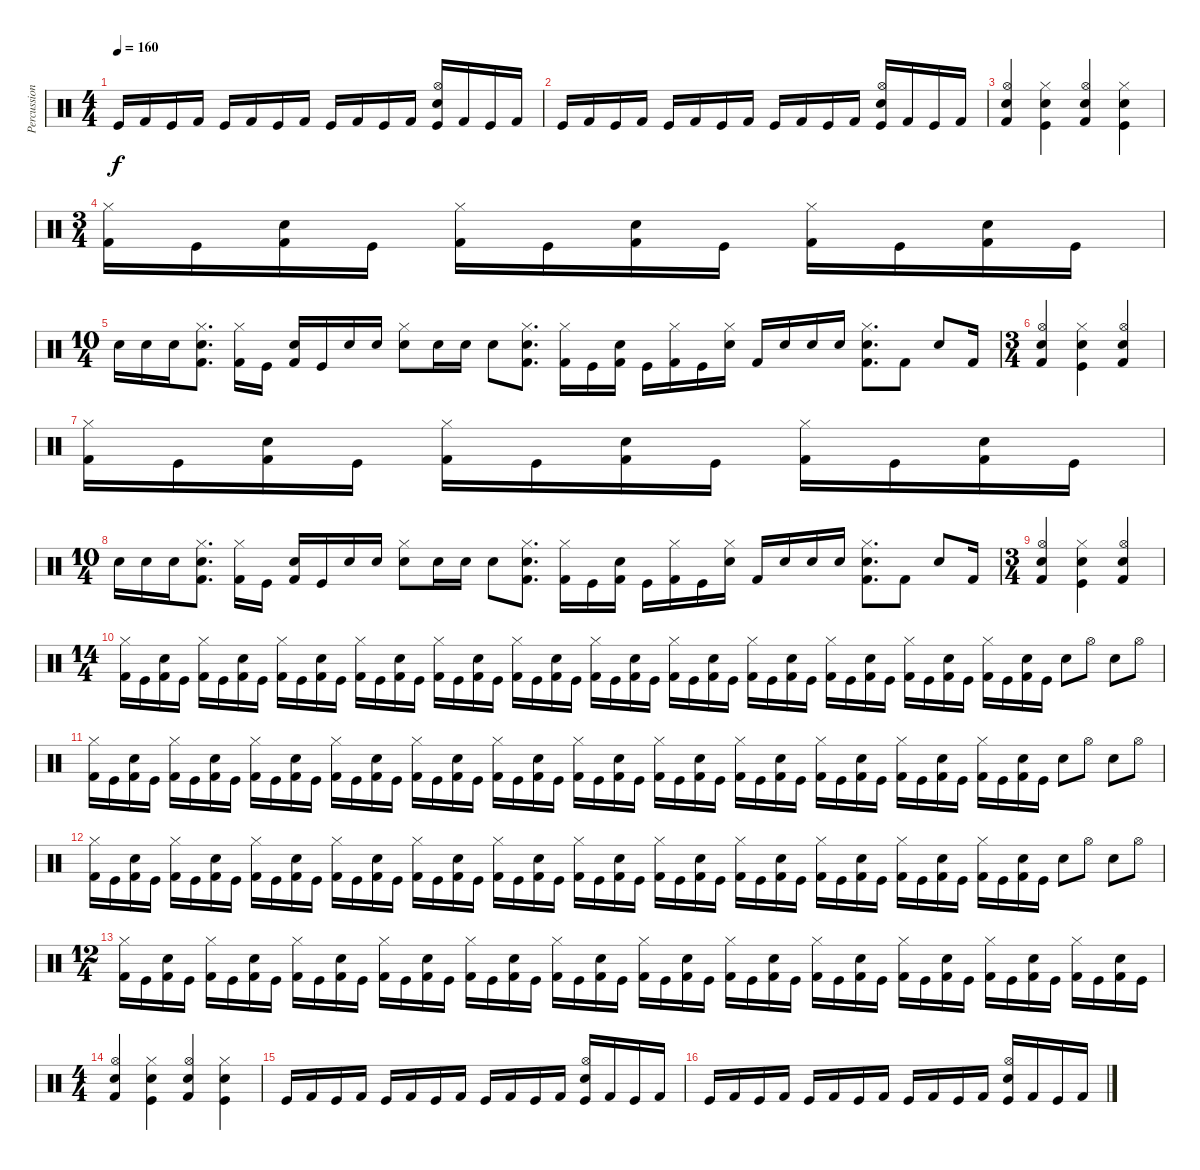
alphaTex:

\track ("Percussions" "Percussion") {instrument percussion}
\staff {score}
\articulation defaults
\ts (4 4)
\tempo 160
\clef neutral
\ks c "Kick (hit)".16{dy f} "Kick (hit) 2".16 "Kick (hit)".16 "Kick (hit) 2".16 "Kick (hit)".16 "Kick (hit) 2".16 "Kick (hit)".16 "Kick (hit) 2".16 "Kick (hit)".16 "Kick (hit) 2".16 "Kick (hit)".16 "Kick (hit) 2".16
("Hi-Hat (open)" "Electric Snare (hit)" "Kick (hit)").16 "Kick (hit) 2".16 "Kick (hit)".16 "Kick (hit) 2".16 |
"Kick (hit)".16 "Kick (hit) 2".16 "Kick (hit)".16 "Kick (hit) 2".16 "Kick (hit)".16 "Kick (hit) 2".16 "Kick (hit)".16 "Kick (hit) 2".16 "Kick (hit)".16 "Kick (hit) 2".16 "Kick (hit)".16 "Kick (hit) 2".16 ("Hi-Hat (open)" "Electric Snare (hit)" "Kick (hit)").16 "Kick (hit) 2".16 "Kick (hit)".16 "Kick (hit) 2".16 |
("Electric Snare (hit)" "Kick (hit) 2" "Hi-Hat (open)").4 ("Electric Snare (hit)" "Kick (hit)" "Hi-Hat (closed)").4 ("Electric Snare (hit)" "Kick (hit) 2" "Hi-Hat (open)").4 ("Electric Snare (hit)" "Kick (hit)" "Hi-Hat (closed)").4 |
\ts (3 4)
("Hi-Hat (closed)" "Kick (hit) 2").16 "Kick (hit)".16 ("Snare (hit) 2" "Kick (hit) 2").16 "Kick (hit)".16 ("Hi-Hat (closed)" "Kick (hit) 2").16 "Kick (hit)".16 ("Snare (hit) 2" "Kick (hit) 2").16 "Kick (hit)".16 ("Hi-Hat (closed)" "Kick (hit) 2").16 "Kick (hit)".16 ("Snare (hit) 2" "Kick (hit) 2").16 "Kick (hit)".16 |
\ts (10 4)
"Electric Snare (hit)".16 "Electric Snare (hit)".16 "Electric Snare (hit)".16 ("Hi-Hat (closed)" "Electric Snare (hit)" "Kick (hit) 2").8{d} ("Kick (hit) 2" "Hi-Hat (closed)").16 "Kick (hit)".16 ("Kick (hit) 2" "Snare (hit) 2").16 "Kick (hit)".16 "Electric Snare (hit)".16 "Electric Snare (hit)".16 ("Hi-Hat (closed)" "Electric Snare (hit)").8 "Electric Snare (hit)".16 "Electric Snare (hit)".16 "Electric Snare (hit)".8 ("Hi-Hat (closed)" "Electric Snare (hit)" "Kick (hit) 2").8{d} ("Hi-Hat (closed)" "Kick (hit) 2").16 "Kick (hit)".16 ("Snare (hit) 2" "Kick (hit) 2").16 "Kick (hit)".16 ("Hi-Hat (closed)" "Kick (hit) 2").16 "Kick (hit)".16 ("Hi-Hat (closed)" "Snare (hit) 2").16 "Kick (hit) 2".16 "Electric Snare (hit)".16 "Electric Snare (hit)".16 "Electric Snare (hit)".16 ("Hi-Hat (closed)" "Electric Snare (hit)" "Kick (hit) 2").8{d} "Kick (hit) 2".8 "Snare (hit) 2".8 "Kick (hit) 2".16 |
\ts (3 4)
("Electric Snare (hit)" "Kick (hit) 2" "Hi-Hat (open)").4 ("Electric Snare (hit)" "Kick (hit)" "Hi-Hat (closed)").4 ("Electric Snare (hit)" "Kick (hit) 2" "Hi-Hat (open)").4 |
("Hi-Hat (closed)" "Kick (hit) 2").16 "Kick (hit)".16 ("Snare (hit) 2" "Kick (hit) 2").16 "Kick (hit)".16 ("Hi-Hat (closed)" "Kick (hit) 2").16 "Kick (hit)".16 ("Snare (hit) 2" "Kick (hit) 2").16 "Kick (hit)".16 ("Hi-Hat (closed)" "Kick (hit) 2").16 "Kick (hit)".16 ("Snare (hit) 2" "Kick (hit) 2").16 "Kick (hit)".16 |
\ts (10 4)
"Electric Snare (hit)".16 "Electric Snare (hit)".16 "Electric Snare (hit)".16 ("Hi-Hat (closed)" "Electric Snare (hit)" "Kick (hit) 2").8{d} ("Kick (hit) 2" "Hi-Hat (closed)").16 "Kick (hit)".16 ("Kick (hit) 2" "Snare (hit) 2").16 "Kick (hit)".16 "Electric Snare (hit)".16 "Electric Snare (hit)".16 ("Hi-Hat (closed)" "Electric Snare (hit)").8 "Electric Snare (hit)".16 "Electric Snare (hit)".16 "Electric Snare (hit)".8 ("Hi-Hat (closed)" "Electric Snare (hit)" "Kick (hit) 2").8{d} ("Hi-Hat (closed)" "Kick (hit) 2").16 "Kick (hit)".16 ("Snare (hit) 2" "Kick (hit) 2").16 "Kick (hit)".16 ("Hi-Hat (closed)" "Kick (hit) 2").16 "Kick (hit)".16 ("Hi-Hat (closed)" "Snare (hit) 2").16 "Kick (hit) 2".16 "Electric Snare (hit)".16 "Electric Snare (hit)".16 "Electric Snare (hit)".16 ("Hi-Hat (closed)" "Electric Snare (hit)" "Kick (hit) 2").8{d} "Kick (hit) 2".8 "Snare (hit) 2".8 "Kick (hit) 2".16 |
\ts (3 4)
("Electric Snare (hit)" "Kick (hit) 2" "Hi-Hat (open)").4 ("Electric Snare (hit)" "Kick (hit)" "Hi-Hat (closed)").4 ("Electric Snare (hit)" "Kick (hit) 2" "Hi-Hat (open)").4 |
\ts (14 4)
("Hi-Hat (closed)" "Kick (hit) 2").16 "Kick (hit)".16 ("Snare (hit) 2" "Kick (hit) 2").16 "Kick (hit)".16 ("Hi-Hat (closed)" "Kick (hit) 2").16 "Kick (hit)".16 ("Snare (hit) 2" "Kick (hit) 2").16 "Kick (hit)".16 ("Hi-Hat (closed)" "Kick (hit) 2").16 "Kick (hit)".16 ("Snare (hit) 2" "Kick (hit) 2").16 "Kick (hit)".16 ("Hi-Hat (closed)" "Kick (hit) 2").16 "Kick (hit)".16 ("Snare (hit) 2" "Kick (hit) 2").16 "Kick (hit)".16 ("Hi-Hat (closed)" "Kick (hit) 2").16 "Kick (hit)".16 ("Snare (hit) 2" "Kick (hit) 2").16 "Kick (hit)".16 ("Hi-Hat (closed)" "Kick (hit) 2").16 "Kick (hit)".16 ("Snare (hit) 2" "Kick (hit) 2").16 "Kick (hit)".16 ("Hi-Hat (closed)" "Kick (hit) 2").16 "Kick (hit)".16 ("Snare (hit) 2" "Kick (hit) 2").16 "Kick (hit)".16 ("Hi-Hat (closed)" "Kick (hit) 2").16 "Kick (hit)".16 ("Snare (hit) 2" "Kick (hit) 2").16 "Kick (hit)".16 ("Hi-Hat (closed)" "Kick (hit) 2").16 "Kick (hit)".16 ("Snare (hit) 2" "Kick (hit) 2").16 "Kick (hit)".16 ("Hi-Hat (closed)" "Kick (hit) 2").16 "Kick (hit)".16 ("Snare (hit) 2" "Kick (hit) 2").16 "Kick (hit)".16 ("Hi-Hat (closed)" "Kick (hit) 2").16 "Kick (hit)".16 ("Snare (hit) 2" "Kick (hit) 2").16 "Kick (hit)".16 ("Hi-Hat (closed)" "Kick (hit) 2").16 "Kick (hit)".16 ("Snare (hit) 2" "Kick (hit) 2").16 "Kick (hit)".16 "Snare (hit) 2".8 "Hi-Hat (open)".8 "Snare (hit) 2".8 "Hi-Hat (open)".8 |
("Hi-Hat (closed)" "Kick (hit) 2").16 "Kick (hit)".16 ("Snare (hit) 2" "Kick (hit) 2").16 "Kick (hit)".16 ("Hi-Hat (closed)" "Kick (hit) 2").16 "Kick (hit)".16 ("Snare (hit) 2" "Kick (hit) 2").16 "Kick (hit)".16 ("Hi-Hat (closed)" "Kick (hit) 2").16 "Kick (hit)".16 ("Snare (hit) 2" "Kick (hit) 2").16 "Kick (hit)".16 ("Hi-Hat (closed)" "Kick (hit) 2").16 "Kick (hit)".16 ("Snare (hit) 2" "Kick (hit) 2").16 "Kick (hit)".16 ("Hi-Hat (closed)" "Kick (hit) 2").16 "Kick (hit)".16 ("Snare (hit) 2" "Kick (hit) 2").16 "Kick (hit)".16 ("Hi-Hat (closed)" "Kick (hit) 2").16 "Kick (hit)".16 ("Snare (hit) 2" "Kick (hit) 2").16 "Kick (hit)".16 ("Hi-Hat (closed)" "Kick (hit) 2").16 "Kick (hit)".16 ("Snare (hit) 2" "Kick (hit) 2").16 "Kick (hit)".16 ("Hi-Hat (closed)" "Kick (hit) 2").16 "Kick (hit)".16 ("Snare (hit) 2" "Kick (hit) 2").16 "Kick (hit)".16 ("Hi-Hat (closed)" "Kick (hit) 2").16 "Kick (hit)".16 ("Snare (hit) 2" "Kick (hit) 2").16 "Kick (hit)".16 ("Hi-Hat (closed)" "Kick (hit) 2").16 "Kick (hit)".16 ("Snare (hit) 2" "Kick (hit) 2").16 "Kick (hit)".16 ("Hi-Hat (closed)" "Kick (hit) 2").16 "Kick (hit)".16 ("Snare (hit) 2" "Kick (hit) 2").16 "Kick (hit)".16 ("Hi-Hat (closed)" "Kick (hit) 2").16 "Kick (hit)".16 ("Snare (hit) 2" "Kick (hit) 2").16 "Kick (hit)".16 "Snare (hit) 2".8 "Hi-Hat (open)".8 "Snare (hit) 2".8 "Hi-Hat (open)".8 |
("Hi-Hat (closed)" "Kick (hit) 2").16 "Kick (hit)".16 ("Snare (hit) 2" "Kick (hit) 2").16 "Kick (hit)".16 ("Hi-Hat (closed)" "Kick (hit) 2").16 "Kick (hit)".16 ("Snare (hit) 2" "Kick (hit) 2").16 "Kick (hit)".16 ("Hi-Hat (closed)" "Kick (hit) 2").16 "Kick (hit)".16 ("Snare (hit) 2" "Kick (hit) 2").16 "Kick (hit)".16 ("Hi-Hat (closed)" "Kick (hit) 2").16 "Kick (hit)".16 ("Snare (hit) 2" "Kick (hit) 2").16 "Kick (hit)".16 ("Hi-Hat (closed)" "Kick (hit) 2").16 "Kick (hit)".16 ("Snare (hit) 2" "Kick (hit) 2").16 "Kick (hit)".16 ("Hi-Hat (closed)" "Kick (hit) 2").16 "Kick (hit)".16 ("Snare (hit) 2" "Kick (hit) 2").16 "Kick (hit)".16 ("Hi-Hat (closed)" "Kick (hit) 2").16 "Kick (hit)".16 ("Snare (hit) 2" "Kick (hit) 2").16 "Kick (hit)".16 ("Hi-Hat (closed)" "Kick (hit) 2").16 "Kick (hit)".16 ("Snare (hit) 2" "Kick (hit) 2").16 "Kick (hit)".16 ("Hi-Hat (closed)" "Kick (hit) 2").16 "Kick (hit)".16 ("Snare (hit) 2" "Kick (hit) 2").16 "Kick (hit)".16 ("Hi-Hat (closed)" "Kick (hit) 2").16 "Kick (hit)".16 ("Snare (hit) 2" "Kick (hit) 2").16 "Kick (hit)".16 ("Hi-Hat (closed)" "Kick (hit) 2").16 "Kick (hit)".16 ("Snare (hit) 2" "Kick (hit) 2").16 "Kick (hit)".16 ("Hi-Hat (closed)" "Kick (hit) 2").16 "Kick (hit)".16 ("Snare (hit) 2" "Kick (hit) 2").16 "Kick (hit)".16 "Snare (hit) 2".8 "Hi-Hat (open)".8 "Snare (hit) 2".8 "Hi-Hat (open)".8 |
\ts (12 4)
("Hi-Hat (closed)" "Kick (hit) 2").16 "Kick (hit)".16 ("Snare (hit) 2" "Kick (hit) 2").16 "Kick (hit)".16 ("Hi-Hat (closed)" "Kick (hit) 2").16 "Kick (hit)".16 ("Snare (hit) 2" "Kick (hit) 2").16 "Kick (hit)".16 ("Hi-Hat (closed)" "Kick (hit) 2").16 "Kick (hit)".16 ("Snare (hit) 2" "Kick (hit) 2").16 "Kick (hit)".16 ("Hi-Hat (closed)" "Kick (hit) 2").16 "Kick (hit)".16 ("Snare (hit) 2" "Kick (hit) 2").16 "Kick (hit)".16 ("Hi-Hat (closed)" "Kick (hit) 2").16 "Kick (hit)".16 ("Snare (hit) 2" "Kick (hit) 2").16 "Kick (hit)".16 ("Hi-Hat (closed)" "Kick (hit) 2").16 "Kick (hit)".16 ("Snare (hit) 2" "Kick (hit) 2").16 "Kick (hit)".16 ("Hi-Hat (closed)" "Kick (hit) 2").16 "Kick (hit)".16 ("Snare (hit) 2" "Kick (hit) 2").16 "Kick (hit)".16 ("Hi-Hat (closed)" "Kick (hit) 2").16 "Kick (hit)".16 ("Snare (hit) 2" "Kick (hit) 2").16 "Kick (hit)".16 ("Hi-Hat (closed)" "Kick (hit) 2").16 "Kick (hit)".16 ("Snare (hit) 2" "Kick (hit) 2").16 "Kick (hit)".16 ("Hi-Hat (closed)" "Kick (hit) 2").16 "Kick (hit)".16 ("Snare (hit) 2" "Kick (hit) 2").16 "Kick (hit)".16 ("Hi-Hat (closed)" "Kick (hit) 2").16 "Kick (hit)".16 ("Snare (hit) 2" "Kick (hit) 2").16 "Kick (hit)".16 ("Hi-Hat (closed)" "Kick (hit) 2").16 "Kick (hit)".16 ("Snare (hit) 2" "Kick (hit) 2").16 "Kick (hit)".16 |
\ts (4 4)
("Electric Snare (hit)" "Kick (hit) 2" "Hi-Hat (open)").4 ("Electric Snare (hit)" "Kick (hit)" "Hi-Hat (closed)").4 ("Electric Snare (hit)" "Kick (hit) 2" "Hi-Hat (open)").4 ("Electric Snare (hit)" "Kick (hit)" "Hi-Hat (closed)").4 |
"Kick (hit)".16 "Kick (hit) 2".16 "Kick (hit)".16 "Kick (hit) 2".16 "Kick (hit)".16 "Kick (hit) 2".16 "Kick (hit)".16 "Kick (hit) 2".16 "Kick (hit)".16 "Kick (hit) 2".16 "Kick (hit)".16 "Kick (hit) 2".16 ("Hi-Hat (open)" "Electric Snare (hit)" "Kick (hit)").16 "Kick (hit) 2".16 "Kick (hit)".16 "Kick (hit) 2".16 |
"Kick (hit)".16 "Kick (hit) 2".16 "Kick (hit)".16 "Kick (hit) 2".16 "Kick (hit)".16 "Kick (hit) 2".16 "Kick (hit)".16 "Kick (hit) 2".16 "Kick (hit)".16 "Kick (hit) 2".16 "Kick (hit)".16 "Kick (hit) 2".16 ("Hi-Hat (open)" "Electric Snare (hit)" "Kick (hit)").16 "Kick (hit) 2".16 "Kick (hit)".16 "Kick (hit) 2".16
